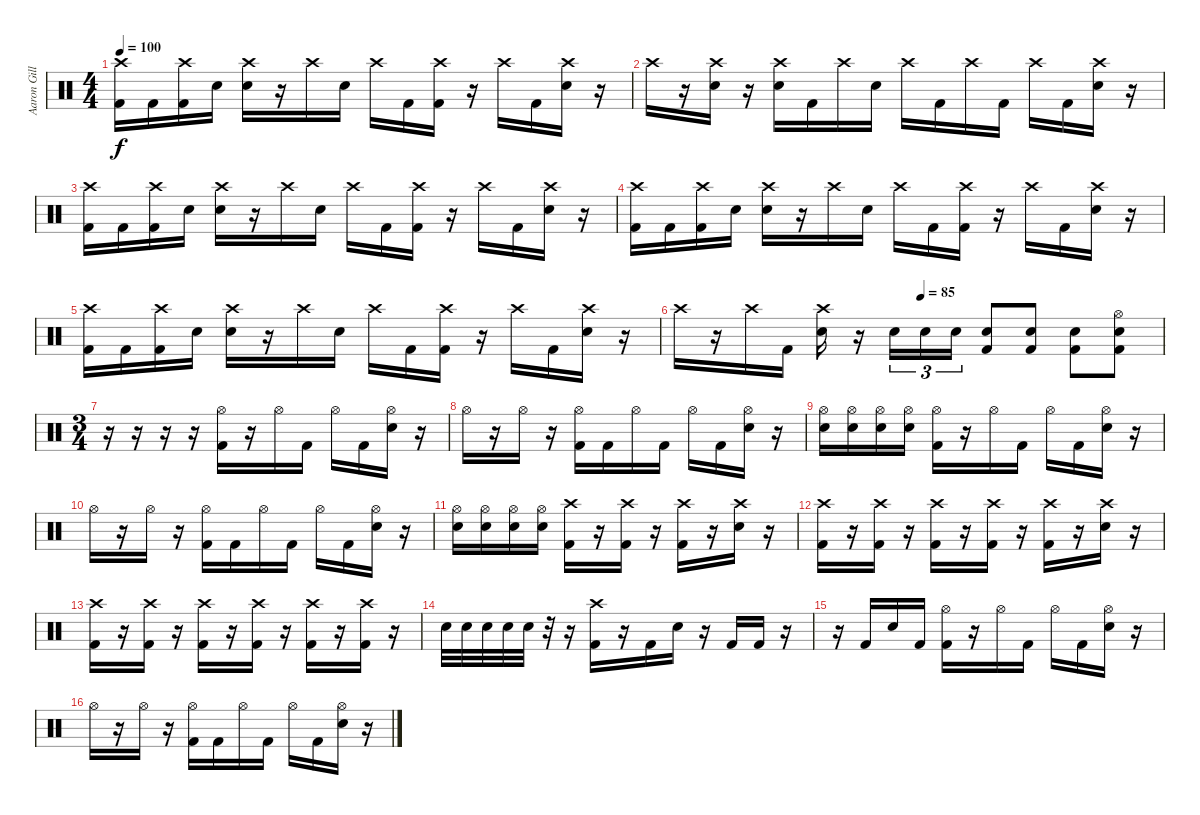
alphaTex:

\track ("Aaron Gillespie" "Aaron Gill") {instrument percussion}
\staff {score}
\articulation defaults
\ts (4 4)
\tempo 100
\clef neutral
\ks c
("Crash high (hit)" "Kick (hit) 2").16{dy f} "Kick (hit) 2".16 ("Crash high (hit)" "Kick (hit) 2").16 "Electric Snare (hit)".16 ("Crash high (hit)" "Electric Snare (hit)").16 r.16 "Crash high (hit)".16 "Electric Snare (hit)".16 "Crash high (hit)".16 "Kick (hit) 2".16 ("Crash high (hit)" "Kick (hit) 2").16 r.16 "Crash high (hit)".16 "Kick (hit) 2".16 ("Crash high (hit)" "Electric Snare (hit)").16 r.16 |
"Crash high (hit)".16 r.16 ("Crash high (hit)" "Electric Snare (hit)").16 r.16 ("Crash high (hit)" "Electric Snare (hit)").16 "Kick (hit) 2".16 "Crash high (hit)".16 "Electric Snare (hit)".16 "Crash high (hit)".16 "Kick (hit) 2".16 "Crash high (hit)".16 "Kick (hit) 2".16 "Crash high (hit)".16 "Kick (hit) 2".16 ("Crash high (hit)" "Electric Snare (hit)").16 r.16 |
("Crash high (hit)" "Kick (hit) 2").16 "Kick (hit) 2".16 ("Crash high (hit)" "Kick (hit) 2").16 "Electric Snare (hit)".16 ("Crash high (hit)" "Electric Snare (hit)").16 r.16 "Crash high (hit)".16 "Electric Snare (hit)".16 "Crash high (hit)".16 "Kick (hit) 2".16 ("Crash high (hit)" "Kick (hit) 2").16 r.16 "Crash high (hit)".16 "Kick (hit) 2".16 ("Crash high (hit)" "Electric Snare (hit)").16 r.16 |
("Crash high (hit)" "Kick (hit) 2").16 "Kick (hit) 2".16 ("Crash high (hit)" "Kick (hit) 2").16 "Electric Snare (hit)".16 ("Crash high (hit)" "Electric Snare (hit)").16 r.16 "Crash high (hit)".16 "Electric Snare (hit)".16 "Crash high (hit)".16 "Kick (hit) 2".16 ("Crash high (hit)" "Kick (hit) 2").16 r.16 "Crash high (hit)".16 "Kick (hit) 2".16 ("Crash high (hit)" "Electric Snare (hit)").16 r.16 |
("Crash high (hit)" "Kick (hit) 2").16 "Kick (hit) 2".16 ("Crash high (hit)" "Kick (hit) 2").16 "Electric Snare (hit)".16 ("Crash high (hit)" "Electric Snare (hit)").16 r.16 "Crash high (hit)".16 "Electric Snare (hit)".16 "Crash high (hit)".16 "Kick (hit) 2".16 ("Crash high (hit)" "Kick (hit) 2").16 r.16 "Crash high (hit)".16 "Kick (hit) 2".16 ("Crash high (hit)" "Electric Snare (hit)").16 r.16 |
\tempo (85 0.5)
"Crash high (hit)".16 r.16 "Crash high (hit)".16 "Kick (hit) 2".16 ("Crash high (hit)" "Electric Snare (hit)").16 r.16 "Electric Snare (hit)".16{tu (3 2)} "Electric Snare (hit)".16{tu (3 2)} "Electric Snare (hit)".16{tu (3 2)} ("Electric Snare (hit)" "Kick (hit) 2").8 ("Electric Snare (hit)" "Kick (hit) 2").8 ("Electric Snare (hit)" "Kick (hit) 2").8 ("Hi-Hat (open)" "Electric Snare (hit)" "Kick (hit) 2").8 |
\ts (3 4)
r.16 r.16 r.16 r.16 ("Hi-Hat (open)" "Kick (hit) 2").16 r.16 "Hi-Hat (open)".16 "Kick (hit) 2".16 "Hi-Hat (open)".16 "Kick (hit) 2".16 ("Hi-Hat (open)" "Electric Snare (hit)").16 r.16 |
"Hi-Hat (open)".16 r.16 "Hi-Hat (open)".16 r.16 ("Hi-Hat (open)" "Kick (hit) 2").16 "Kick (hit) 2".16 "Hi-Hat (open)".16 "Kick (hit) 2".16 "Hi-Hat (open)".16 "Kick (hit) 2".16 ("Hi-Hat (open)" "Electric Snare (hit)").16 r.16 |
("Hi-Hat (open)" "Electric Snare (hit)").16 ("Hi-Hat (open)" "Electric Snare (hit)").16 ("Hi-Hat (open)" "Electric Snare (hit)").16 ("Hi-Hat (open)" "Electric Snare (hit)").16 ("Hi-Hat (open)" "Kick (hit) 2").16 r.16 "Hi-Hat (open)".16 "Kick (hit) 2".16 "Hi-Hat (open)".16 "Kick (hit) 2".16 ("Hi-Hat (open)" "Electric Snare (hit)").16 r.16 |
"Hi-Hat (open)".16 r.16 "Hi-Hat (open)".16 r.16 ("Hi-Hat (open)" "Kick (hit) 2").16 "Kick (hit) 2".16 "Hi-Hat (open)".16 "Kick (hit) 2".16 "Hi-Hat (open)".16 "Kick (hit) 2".16 ("Hi-Hat (open)" "Electric Snare (hit)").16 r.16 |
("Hi-Hat (open)" "Electric Snare (hit)").16 ("Hi-Hat (open)" "Electric Snare (hit)").16 ("Hi-Hat (open)" "Electric Snare (hit)").16 ("Hi-Hat (open)" "Electric Snare (hit)").16 ("Crash high (hit)" "Kick (hit) 2").16 r.16 ("Crash high (hit)" "Kick (hit) 2").16 r.16 ("Crash high (hit)" "Kick (hit) 2").16 r.16 ("Crash high (hit)" "Electric Snare (hit)").16 r.16 |
("Crash high (hit)" "Kick (hit) 2").16 r.16 ("Crash high (hit)" "Kick (hit) 2").16 r.16 ("Crash high (hit)" "Kick (hit) 2").16 r.16 ("Crash high (hit)" "Kick (hit) 2").16 r.16 ("Crash high (hit)" "Kick (hit) 2").16 r.16 ("Crash high (hit)" "Electric Snare (hit)").16 r.16 |
("Crash high (hit)" "Kick (hit) 2").16 r.16 ("Crash high (hit)" "Kick (hit) 2").16 r.16 ("Crash high (hit)" "Kick (hit) 2").16 r.16 ("Crash high (hit)" "Kick (hit) 2").16 r.16 ("Crash high (hit)" "Kick (hit) 2").16 r.16 ("Crash high (hit)" "Kick (hit) 2").16 r.16 |
"Electric Snare (hit)".32 "Electric Snare (hit)".32 "Electric Snare (hit)".32 "Electric Snare (hit)".32 "Electric Snare (hit)".32 r.32 r.16 ("Crash high (hit)" "Kick (hit) 2").16 r.16 "Kick (hit) 2".16 "Electric Snare (hit)".16 r.16 "Kick (hit) 2".16 "Kick (hit) 2".16 r.16 |
r.16 "Kick (hit) 2".16 "Electric Snare (hit)".16 "Kick (hit) 2".16 ("Hi-Hat (open)" "Kick (hit) 2").16 r.16 "Hi-Hat (open)".16 "Kick (hit) 2".16 "Hi-Hat (open)".16 "Kick (hit) 2".16 ("Hi-Hat (open)" "Electric Snare (hit)").16 r.16 |
"Hi-Hat (open)".16 r.16 "Hi-Hat (open)".16 r.16 ("Hi-Hat (open)" "Kick (hit) 2").16 "Kick (hit) 2".16 "Hi-Hat (open)".16 "Kick (hit) 2".16 "Hi-Hat (open)".16 "Kick (hit) 2".16 ("Hi-Hat (open)" "Electric Snare (hit)").16 r.16
